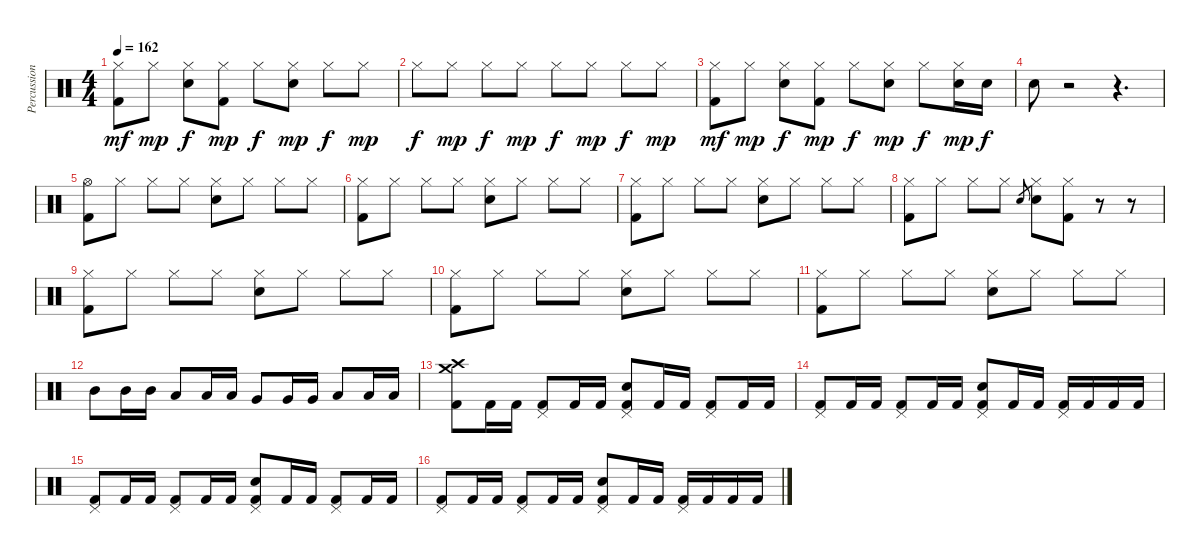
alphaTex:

\track ("Percussion" "Percussion") {instrument percussion}
\staff {score}
\articulation defaults
\ts (4 4)
\tempo 162
\clef neutral
\ks c
("Kick (hit) 2" "Hi-Hat (closed)").8{dy mf} "Hi-Hat (closed)".8{dy mp} ("Snare (hit) 2" "Hi-Hat (closed)").8{dy f} ("Kick (hit) 2" "Hi-Hat (closed)").8{dy mp} "Hi-Hat (closed)".8{dy f} ("Snare (hit) 2" "Hi-Hat (closed)").8{dy mp} "Hi-Hat (closed)".8{dy f} "Hi-Hat (closed)".8{dy mp} |
"Hi-Hat (closed)".8{dy f} "Hi-Hat (closed)".8{dy mp} "Hi-Hat (closed)".8{dy f} "Hi-Hat (closed)".8{dy mp} "Hi-Hat (closed)".8{dy f} "Hi-Hat (closed)".8{dy mp} "Hi-Hat (closed)".8{dy f} "Hi-Hat (closed)".8{dy mp} |
("Kick (hit) 2" "Hi-Hat (closed)").8{dy mf} "Hi-Hat (closed)".8{dy mp} ("Snare (hit) 2" "Hi-Hat (closed)").8{dy f} ("Kick (hit) 2" "Hi-Hat (closed)").8{dy mp} "Hi-Hat (closed)".8{dy f} ("Snare (hit) 2" "Hi-Hat (closed)").8{dy mp} "Hi-Hat (closed)".8{dy f} ("Snare (hit) 2" "Hi-Hat (closed)").16{dy mp} "Snare (hit) 2".16{dy f} |
"Snare (hit) 2".8 r.2 r.4{d} |
("Kick (hit) 2" "Hi-Hat (open)").8 "Hi-Hat (closed)".8 "Hi-Hat (closed)".8 "Hi-Hat (closed)".8 ("Snare (hit) 2" "Hi-Hat (closed)").8 "Hi-Hat (closed)".8 "Hi-Hat (closed)".8 "Hi-Hat (closed)".8 |
("Kick (hit) 2" "Hi-Hat (closed)").8 "Hi-Hat (closed)".8 "Hi-Hat (closed)".8 "Hi-Hat (closed)".8 ("Snare (hit) 2" "Hi-Hat (closed)").8 "Hi-Hat (closed)".8 "Hi-Hat (closed)".8 "Hi-Hat (closed)".8 |
("Kick (hit) 2" "Hi-Hat (closed)").8 "Hi-Hat (closed)".8 "Hi-Hat (closed)".8 "Hi-Hat (closed)".8 ("Snare (hit) 2" "Hi-Hat (closed)").8 "Hi-Hat (closed)".8 "Hi-Hat (closed)".8 "Hi-Hat (closed)".8 |
("Kick (hit) 2" "Hi-Hat (closed)").8 "Hi-Hat (closed)".8 "Hi-Hat (closed)".8 "Hi-Hat (closed)".8 "Snare (hit) 2".8{gr} ("Snare (hit) 2" "Hi-Hat (closed)").8 ("Kick (hit) 2" "Hi-Hat (closed)").8 r.8 r.8 |
("Kick (hit) 2" "Hi-Hat (closed)").8 "Hi-Hat (closed)".8 "Hi-Hat (closed)".8 "Hi-Hat (closed)".8 ("Snare (hit) 2" "Hi-Hat (closed)").8 "Hi-Hat (closed)".8 "Hi-Hat (closed)".8 "Hi-Hat (closed)".8 |
("Kick (hit) 2" "Hi-Hat (closed)").8 "Hi-Hat (closed)".8 "Hi-Hat (closed)".8 "Hi-Hat (closed)".8 ("Snare (hit) 2" "Hi-Hat (closed)").8 "Hi-Hat (closed)".8 "Hi-Hat (closed)".8 "Hi-Hat (closed)".8 |
("Kick (hit) 2" "Hi-Hat (closed)").8 "Hi-Hat (closed)".8 "Hi-Hat (closed)".8 "Hi-Hat (closed)".8 ("Snare (hit) 2" "Hi-Hat (closed)").8 "Hi-Hat (closed)".8 "Hi-Hat (closed)".8 "Hi-Hat (closed)".8 |
"Mid Tom (hit)".8 "Mid Tom (hit)".16 "Mid Tom (hit)".16 "Low Tom (hit)".8 "Low Tom (hit)".16 "Low Tom (hit)".16 "Very Low Tom (hit)".8 "Very Low Tom (hit)".16 "Very Low Tom (hit)".16 "Low Floor Tom (hit)".8 "Low Floor Tom (hit)".16 "Low Floor Tom (hit)".16 |
("Kick (hit) 2" "Crash high (hit)" "Crash medium (hit)").8 "Kick (hit) 2".16 "Kick (hit) 2".16 ("Kick (hit) 2" "Pedal Hi-Hat (hit)").8 "Kick (hit) 2".16 "Kick (hit) 2".16 ("Kick (hit) 2" "Snare (hit) 2" "Pedal Hi-Hat (hit)").8 "Kick (hit) 2".16 "Kick (hit) 2".16 ("Kick (hit) 2" "Pedal Hi-Hat (hit)").8 "Kick (hit) 2".16 "Kick (hit) 2".16 |
("Kick (hit) 2" "Pedal Hi-Hat (hit)").8 "Kick (hit) 2".16 "Kick (hit) 2".16 ("Kick (hit) 2" "Pedal Hi-Hat (hit)").8 "Kick (hit) 2".16 "Kick (hit) 2".16 ("Kick (hit) 2" "Snare (hit) 2" "Pedal Hi-Hat (hit)").8 "Kick (hit) 2".16 "Kick (hit) 2".16 ("Kick (hit) 2" "Pedal Hi-Hat (hit)").16 "Kick (hit) 2".16 "Kick (hit) 2".16 "Kick (hit) 2".16 |
("Kick (hit) 2" "Pedal Hi-Hat (hit)").8 "Kick (hit) 2".16 "Kick (hit) 2".16 ("Kick (hit) 2" "Pedal Hi-Hat (hit)").8 "Kick (hit) 2".16 "Kick (hit) 2".16 ("Kick (hit) 2" "Snare (hit) 2" "Pedal Hi-Hat (hit)").8 "Kick (hit) 2".16 "Kick (hit) 2".16 ("Kick (hit) 2" "Pedal Hi-Hat (hit)").8 "Kick (hit) 2".16 "Kick (hit) 2".16 |
("Kick (hit) 2" "Pedal Hi-Hat (hit)").8 "Kick (hit) 2".16 "Kick (hit) 2".16 ("Kick (hit) 2" "Pedal Hi-Hat (hit)").8 "Kick (hit) 2".16 "Kick (hit) 2".16 ("Kick (hit) 2" "Snare (hit) 2" "Pedal Hi-Hat (hit)").8 "Kick (hit) 2".16 "Kick (hit) 2".16 ("Kick (hit) 2" "Pedal Hi-Hat (hit)").16 "Kick (hit) 2".16 "Kick (hit) 2".16 "Kick (hit) 2".16
